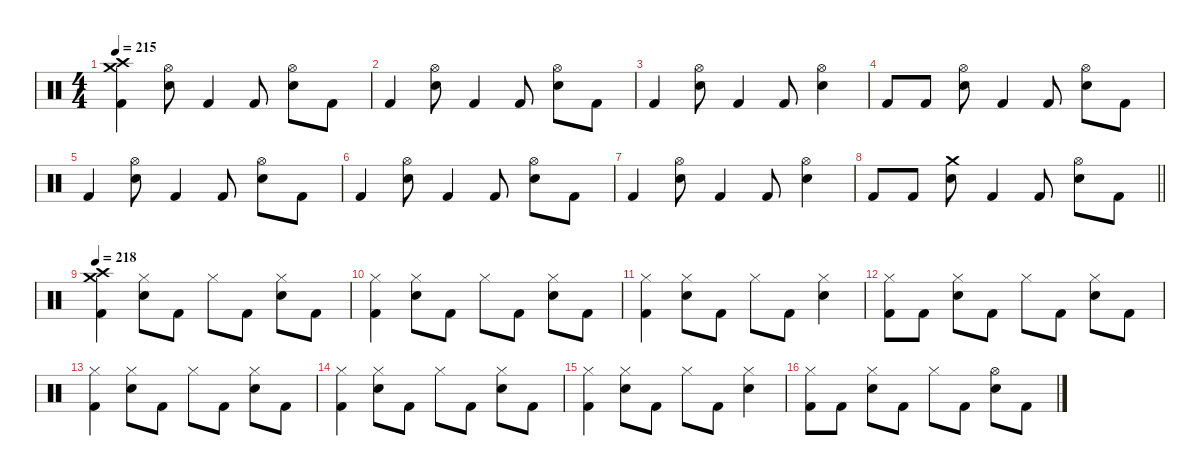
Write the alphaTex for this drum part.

\defaultSystemsLayout 4
\hideDynamics
\bracketExtendMode nobrackets
\singleTrackTrackNamePolicy hidden
\multiTrackTrackNamePolicy hidden
\firstSystemTrackNameMode fullname
\otherSystemsTrackNameOrientation horizontal
\track ("Drums" "drm.") {defaultSystemsLayout 4 instrument percussion}
\staff {score}
\articulation defaults
\ts (4 4)
\tempo 215
\clef neutral
\ks c
("Crash high (hit)" "Crash medium (hit)" "Kick (hit) 2").4{dy f beam Down} ("Hi-Hat (open)" "Snare (hit) 2").8{beam Down} "Kick (hit) 2".4{beam Up} "Kick (hit) 2".8{beam Up} ("Hi-Hat (open)" "Snare (hit) 2").8{beam Down} "Kick (hit) 2".8{dy mp beam Down} |
"Kick (hit) 2".4{dy f beam Up} ("Hi-Hat (open)" "Snare (hit) 2").8{beam Down} "Kick (hit) 2".4{beam Up} "Kick (hit) 2".8{beam Up} ("Hi-Hat (open)" "Snare (hit) 2").8{beam Down} "Kick (hit) 2".8{dy mp beam Down} |
"Kick (hit) 2".4{dy f beam Up} ("Hi-Hat (open)" "Snare (hit) 2").8{beam Down} "Kick (hit) 2".4{beam Up} "Kick (hit) 2".8{beam Up} ("Hi-Hat (open)" "Snare (hit) 2").4{beam Down} |
"Kick (hit) 2".8{beam Up} "Kick (hit) 2".8{beam Up} ("Hi-Hat (open)" "Snare (hit) 2").8{beam Down} "Kick (hit) 2".4{beam Up} "Kick (hit) 2".8{beam Up} ("Hi-Hat (open)" "Snare (hit) 2").8{beam Down} "Kick (hit) 2".8{beam Down} |
"Kick (hit) 2".4{beam Up} ("Hi-Hat (open)" "Snare (hit) 2").8{beam Down} "Kick (hit) 2".4{beam Up} "Kick (hit) 2".8{beam Up} ("Hi-Hat (open)" "Snare (hit) 2").8{beam Down} "Kick (hit) 2".8{dy mp beam Down} |
"Kick (hit) 2".4{dy f beam Up} ("Hi-Hat (open)" "Snare (hit) 2").8{beam Down} "Kick (hit) 2".4{beam Up} "Kick (hit) 2".8{beam Up} ("Hi-Hat (open)" "Snare (hit) 2").8{beam Down} "Kick (hit) 2".8{dy mp beam Down} |
"Kick (hit) 2".4{dy f beam Up} ("Hi-Hat (open)" "Snare (hit) 2").8{beam Down} "Kick (hit) 2".4{beam Up} "Kick (hit) 2".8{beam Up} ("Hi-Hat (open)" "Snare (hit) 2").4{beam Down} |
\barLineRight lightlight "Kick (hit) 2".8{beam Up} "Kick (hit) 2".8{beam Up}
("Crash medium (hit)" "Snare (hit) 2").8{beam Down} "Kick (hit) 2".4{beam Up} "Kick (hit) 2".8{beam Up} ("Hi-Hat (open)" "Snare (hit) 2").8{beam Down} "Kick (hit) 2".8{beam Down} |
\tempo 218
("Crash high (hit)" "Crash medium (hit)" "Kick (hit) 2").4{beam Down} ("Hi-Hat (closed)" "Snare (hit) 2").8{beam Down} "Kick (hit) 2".8{beam Down} "Hi-Hat (closed)".8{dy p beam Down} "Kick (hit) 2".8{dy f beam Down} ("Hi-Hat (closed)" "Snare (hit) 2").8{beam Down} "Kick (hit) 2".8{dy mp beam Down} |
("Hi-Hat (closed)" "Kick (hit) 2").4{dy p beam Down} ("Hi-Hat (closed)" "Snare (hit) 2").8{dy f beam Down} "Kick (hit) 2".8{beam Down} "Hi-Hat (closed)".8{dy p beam Down} "Kick (hit) 2".8{dy f beam Down} ("Hi-Hat (closed)" "Snare (hit) 2").8{beam Down} "Kick (hit) 2".8{dy mp beam Down} |
("Hi-Hat (closed)" "Kick (hit) 2").4{dy p beam Down} ("Hi-Hat (closed)" "Snare (hit) 2").8{dy f beam Down} "Kick (hit) 2".8{beam Down} "Hi-Hat (closed)".8{dy p beam Down} "Kick (hit) 2".8{dy f beam Down} ("Hi-Hat (closed)" "Snare (hit) 2").4{beam Down} |
("Hi-Hat (closed)" "Kick (hit) 2").8{dy p beam Down} "Kick (hit) 2".8{dy f beam Down} ("Hi-Hat (closed)" "Snare (hit) 2").8{beam Down} "Kick (hit) 2".8{beam Down} "Hi-Hat (closed)".8{dy p beam Down} "Kick (hit) 2".8{dy f beam Down} ("Hi-Hat (closed)" "Snare (hit) 2").8{beam Down} "Kick (hit) 2".8{beam Down} |
("Hi-Hat (closed)" "Kick (hit) 2").4{dy p beam Down} ("Hi-Hat (closed)" "Snare (hit) 2").8{dy f beam Down} "Kick (hit) 2".8{beam Down} "Hi-Hat (closed)".8{dy p beam Down} "Kick (hit) 2".8{dy f beam Down} ("Hi-Hat (closed)" "Snare (hit) 2").8{beam Down} "Kick (hit) 2".8{dy mp beam Down} |
("Hi-Hat (closed)" "Kick (hit) 2").4{dy p beam Down} ("Hi-Hat (closed)" "Snare (hit) 2").8{dy f beam Down} "Kick (hit) 2".8{beam Down} "Hi-Hat (closed)".8{dy p beam Down} "Kick (hit) 2".8{dy f beam Down} ("Hi-Hat (closed)" "Snare (hit) 2").8{beam Down} "Kick (hit) 2".8{dy mp beam Down} |
("Hi-Hat (closed)" "Kick (hit) 2").4{dy p beam Down} ("Hi-Hat (closed)" "Snare (hit) 2").8{dy f beam Down} "Kick (hit) 2".8{beam Down} "Hi-Hat (closed)".8{dy p beam Down} "Kick (hit) 2".8{dy f beam Down} ("Hi-Hat (closed)" "Snare (hit) 2").4{beam Down} |
("Hi-Hat (closed)" "Kick (hit) 2").8{dy p beam Down} "Kick (hit) 2".8{dy f beam Down} ("Hi-Hat (closed)" "Snare (hit) 2").8{beam Down} "Kick (hit) 2".8{beam Down} "Hi-Hat (closed)".8{dy p beam Down} "Kick (hit) 2".8{dy f beam Down} ("Hi-Hat (open)" "Snare (hit) 2").8{beam Down} "Kick (hit) 2".8{beam Down}
